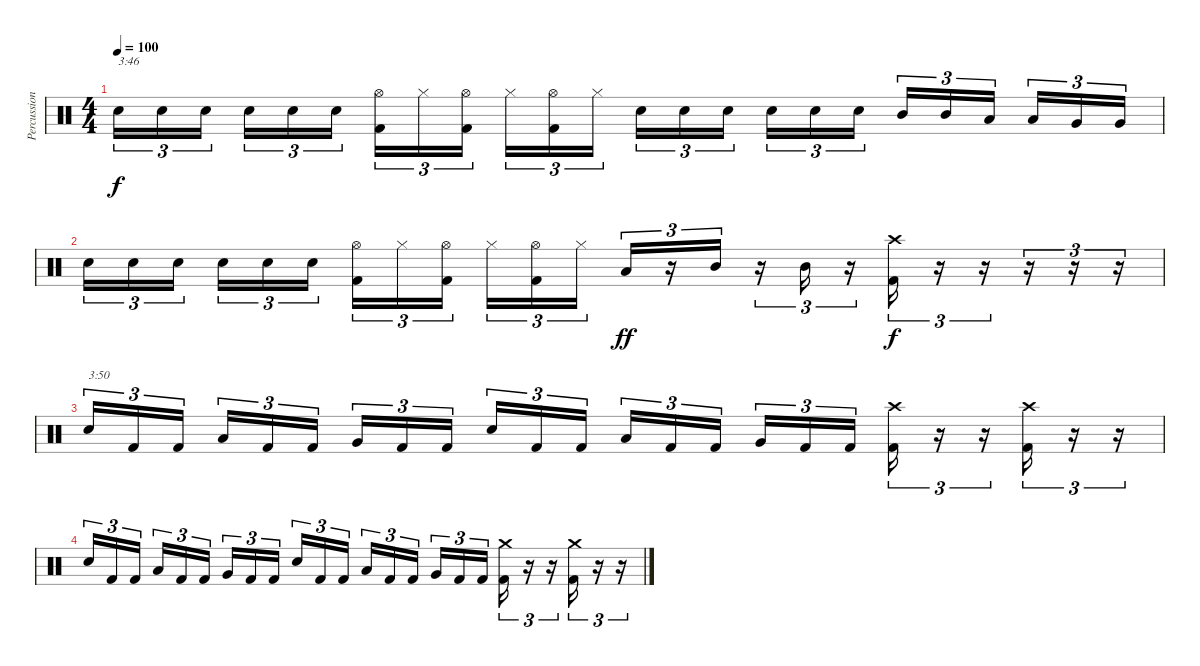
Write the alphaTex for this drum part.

\track ("Percussion" "Percussion") {instrument percussion}
\staff {score}
\articulation defaults
\ts (4 4)
\tempo 100
\clef neutral
\ks c "Snare (hit) 2".16{tu (3 2) txt "3:46" dy f} "Snare (hit) 2".16{tu (3 2)} "Snare (hit) 2".16{tu (3 2) beam splitsecondary} "Snare (hit) 2".16{tu (3 2)} "Snare (hit) 2".16{tu (3 2)} "Snare (hit) 2".16{tu (3 2)}
("Hi-Hat (open)" "Kick (hit) 2").16{tu (3 2)} "Hi-Hat (closed)".16{tu (3 2)} ("Hi-Hat (open)" "Kick (hit) 2").16{tu (3 2) beam splitsecondary} "Hi-Hat (closed)".16{tu (3 2)} ("Hi-Hat (open)" "Kick (hit) 2").16{tu (3 2)} "Hi-Hat (closed)".16{tu (3 2)} "Snare (hit) 2".16{tu (3 2)} "Snare (hit) 2".16{tu (3 2)} "Snare (hit) 2".16{tu (3 2) beam splitsecondary} "Snare (hit) 2".16{tu (3 2)} "Snare (hit) 2".16{tu (3 2)} "Snare (hit) 2".16{tu (3 2)} "Mid Tom (hit)".16{tu (3 2)} "Mid Tom (hit)".16{tu (3 2)} "Low Tom (hit)".16{tu (3 2) beam splitsecondary} "Low Tom (hit)".16{tu (3 2)} "Very Low Tom (hit)".16{tu (3 2)} "Very Low Tom (hit)".16{tu (3 2)} |
"Snare (hit) 2".16{tu (3 2)} "Snare (hit) 2".16{tu (3 2)} "Snare (hit) 2".16{tu (3 2) beam splitsecondary} "Snare (hit) 2".16{tu (3 2)} "Snare (hit) 2".16{tu (3 2)} "Snare (hit) 2".16{tu (3 2)} ("Hi-Hat (open)" "Kick (hit) 2").16{tu (3 2)} "Hi-Hat (closed)".16{tu (3 2)} ("Hi-Hat (open)" "Kick (hit) 2").16{tu (3 2) beam splitsecondary} "Hi-Hat (closed)".16{tu (3 2)} ("Hi-Hat (open)" "Kick (hit) 2").16{tu (3 2)} "Hi-Hat (closed)".16{tu (3 2)} "Low Tom (hit)".16{tu (3 2) dy ff} r.16{tu (3 2)} "Mid Tom (hit)".16{tu (3 2)} r.16{tu (3 2)} "Mid Tom (hit)".16{tu (3 2)} r.16{tu (3 2)} ("Crash high (hit)" "Kick (hit) 2").16{tu (3 2) dy f} r.16{tu (3 2)} r.16{tu (3 2)} r.16{tu (3 2)} r.16{tu (3 2)} r.16{tu (3 2)} |
"Snare (hit) 2".16{tu (3 2) txt "3:50"} "Kick (hit) 2".16{tu (3 2)} "Kick (hit) 2".16{tu (3 2) beam splitsecondary} "Low Tom (hit)".16{tu (3 2)} "Kick (hit) 2".16{tu (3 2)} "Kick (hit) 2".16{tu (3 2)} "Very Low Tom (hit)".16{tu (3 2)} "Kick (hit) 2".16{tu (3 2)} "Kick (hit) 2".16{tu (3 2) beam splitsecondary} "Snare (hit) 2".16{tu (3 2)} "Kick (hit) 2".16{tu (3 2)} "Kick (hit) 2".16{tu (3 2)} "Low Tom (hit)".16{tu (3 2)} "Kick (hit) 2".16{tu (3 2)} "Kick (hit) 2".16{tu (3 2) beam splitsecondary} "Very Low Tom (hit)".16{tu (3 2)} "Kick (hit) 2".16{tu (3 2)} "Kick (hit) 2".16{tu (3 2)} ("Crash high (hit)" "Kick (hit) 2").16{tu (3 2)} r.16{tu (3 2)} r.16{tu (3 2)} ("Crash high (hit)" "Kick (hit) 2").16{tu (3 2)} r.16{tu (3 2)} r.16{tu (3 2)} |
"Snare (hit) 2".16{tu (3 2)} "Kick (hit) 2".16{tu (3 2)} "Kick (hit) 2".16{tu (3 2) beam splitsecondary} "Low Tom (hit)".16{tu (3 2)} "Kick (hit) 2".16{tu (3 2)} "Kick (hit) 2".16{tu (3 2)} "Very Low Tom (hit)".16{tu (3 2)} "Kick (hit) 2".16{tu (3 2)} "Kick (hit) 2".16{tu (3 2) beam splitsecondary} "Snare (hit) 2".16{tu (3 2)} "Kick (hit) 2".16{tu (3 2)} "Kick (hit) 2".16{tu (3 2)} "Low Tom (hit)".16{tu (3 2)} "Kick (hit) 2".16{tu (3 2)} "Kick (hit) 2".16{tu (3 2) beam splitsecondary} "Very Low Tom (hit)".16{tu (3 2)} "Kick (hit) 2".16{tu (3 2)} "Kick (hit) 2".16{tu (3 2)} ("Crash medium (hit)" "Kick (hit) 2").16{tu (3 2)} r.16{tu (3 2)} r.16{tu (3 2)} ("Crash medium (hit)" "Kick (hit) 2").16{tu (3 2)} r.16{tu (3 2)} r.16{tu (3 2)}
